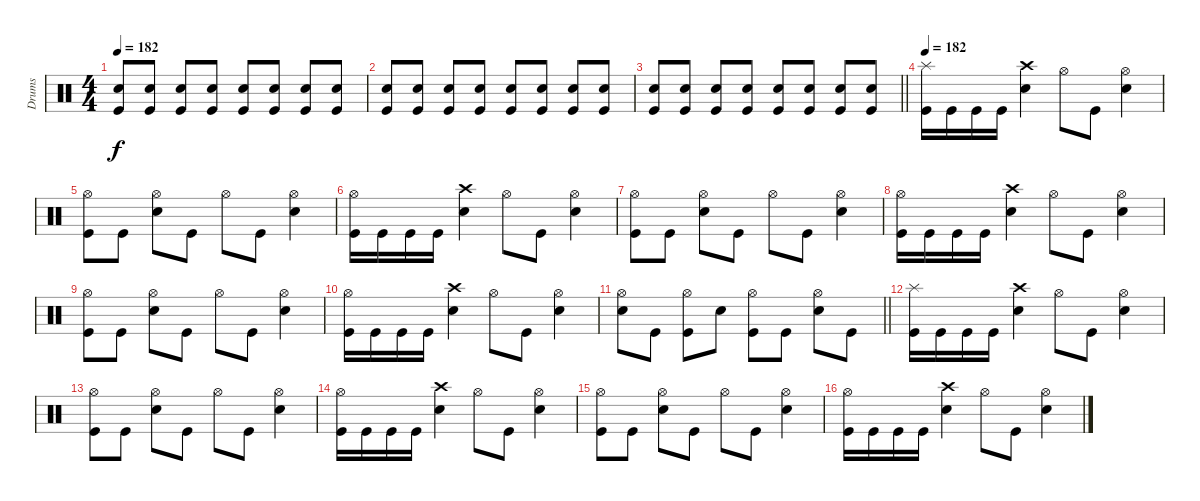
\track ("Drums" "Drums") {instrument percussion}
\staff
\articulation defaults
\ts (4 4)
\tempo 182
\clef neutral
\ks c
("Electric Snare (hit)" "Kick (hit)").8{dy f} ("Electric Snare (hit)" "Kick (hit)").8 ("Electric Snare (hit)" "Kick (hit)").8 ("Electric Snare (hit)" "Kick (hit)").8 ("Electric Snare (hit)" "Kick (hit)").8 ("Electric Snare (hit)" "Kick (hit)").8 ("Electric Snare (hit)" "Kick (hit)").8 ("Electric Snare (hit)" "Kick (hit)").8 |
("Electric Snare (hit)" "Kick (hit)").8 ("Electric Snare (hit)" "Kick (hit)").8 ("Electric Snare (hit)" "Kick (hit)").8 ("Electric Snare (hit)" "Kick (hit)").8 ("Electric Snare (hit)" "Kick (hit)").8 ("Electric Snare (hit)" "Kick (hit)").8 ("Electric Snare (hit)" "Kick (hit)").8 ("Electric Snare (hit)" "Kick (hit)").8 |
\barLineRight lightlight
("Electric Snare (hit)" "Kick (hit)").8 ("Electric Snare (hit)" "Kick (hit)").8 ("Electric Snare (hit)" "Kick (hit)").8 ("Electric Snare (hit)" "Kick (hit)").8 ("Electric Snare (hit)" "Kick (hit)").8 ("Electric Snare (hit)" "Kick (hit)").8 ("Electric Snare (hit)" "Kick (hit)").8 ("Electric Snare (hit)" "Kick (hit)").8 |
\section ("" "")
\tempo 182
("Splash (hit)" "Kick (hit)").16 "Kick (hit)".16 "Kick (hit)".16 "Kick (hit)".16 ("Crash high (hit)" "Electric Snare (hit)").4 "Hi-Hat (open)".8 "Kick (hit)".8 ("Hi-Hat (open)" "Electric Snare (hit)").4 |
("Hi-Hat (open)" "Kick (hit)").8 "Kick (hit)".8 ("Hi-Hat (open)" "Electric Snare (hit)").8 "Kick (hit)".8 "Hi-Hat (open)".8 "Kick (hit)".8 ("Hi-Hat (open)" "Electric Snare (hit)").4 |
("Hi-Hat (open)" "Kick (hit)").16 "Kick (hit)".16 "Kick (hit)".16 "Kick (hit)".16 ("Crash high (hit)" "Electric Snare (hit)").4 "Hi-Hat (open)".8 "Kick (hit)".8 ("Hi-Hat (open)" "Electric Snare (hit)").4 |
("Hi-Hat (open)" "Kick (hit)").8 "Kick (hit)".8 ("Hi-Hat (open)" "Electric Snare (hit)").8 "Kick (hit)".8 "Hi-Hat (open)".8 "Kick (hit)".8 ("Hi-Hat (open)" "Electric Snare (hit)").4 |
("Hi-Hat (open)" "Kick (hit)").16 "Kick (hit)".16 "Kick (hit)".16 "Kick (hit)".16 ("Crash high (hit)" "Electric Snare (hit)").4 "Hi-Hat (open)".8 "Kick (hit)".8 ("Hi-Hat (open)" "Electric Snare (hit)").4 |
("Hi-Hat (open)" "Kick (hit)").8 "Kick (hit)".8 ("Hi-Hat (open)" "Electric Snare (hit)").8 "Kick (hit)".8 "Hi-Hat (open)".8 "Kick (hit)".8 ("Hi-Hat (open)" "Electric Snare (hit)").4 |
("Hi-Hat (open)" "Kick (hit)").16 "Kick (hit)".16 "Kick (hit)".16 "Kick (hit)".16 ("Crash high (hit)" "Electric Snare (hit)").4 "Hi-Hat (open)".8 "Kick (hit)".8 ("Hi-Hat (open)" "Electric Snare (hit)").4 |
\barLineRight lightlight
("Hi-Hat (open)" "Electric Snare (hit)").8 "Kick (hit)".8 ("Hi-Hat (open)" "Kick (hit)").8 "Electric Snare (hit)".8 ("Hi-Hat (open)" "Kick (hit)").8 "Kick (hit)".8 ("Hi-Hat (open)" "Electric Snare (hit)").8 "Kick (hit)".8 |
("Splash (hit)" "Kick (hit)").16 "Kick (hit)".16 "Kick (hit)".16 "Kick (hit)".16 ("Crash high (hit)" "Electric Snare (hit)").4 "Hi-Hat (open)".8 "Kick (hit)".8 ("Hi-Hat (open)" "Electric Snare (hit)").4 |
("Hi-Hat (open)" "Kick (hit)").8 "Kick (hit)".8 ("Hi-Hat (open)" "Electric Snare (hit)").8 "Kick (hit)".8 "Hi-Hat (open)".8 "Kick (hit)".8 ("Hi-Hat (open)" "Electric Snare (hit)").4 |
("Hi-Hat (open)" "Kick (hit)").16 "Kick (hit)".16 "Kick (hit)".16 "Kick (hit)".16 ("Crash high (hit)" "Electric Snare (hit)").4 "Hi-Hat (open)".8 "Kick (hit)".8 ("Hi-Hat (open)" "Electric Snare (hit)").4 |
("Hi-Hat (open)" "Kick (hit)").8 "Kick (hit)".8 ("Hi-Hat (open)" "Electric Snare (hit)").8 "Kick (hit)".8 "Hi-Hat (open)".8 "Kick (hit)".8 ("Hi-Hat (open)" "Electric Snare (hit)").4 |
("Hi-Hat (open)" "Kick (hit)").16 "Kick (hit)".16 "Kick (hit)".16 "Kick (hit)".16 ("Crash high (hit)" "Electric Snare (hit)").4 "Hi-Hat (open)".8 "Kick (hit)".8 ("Hi-Hat (open)" "Electric Snare (hit)").4
